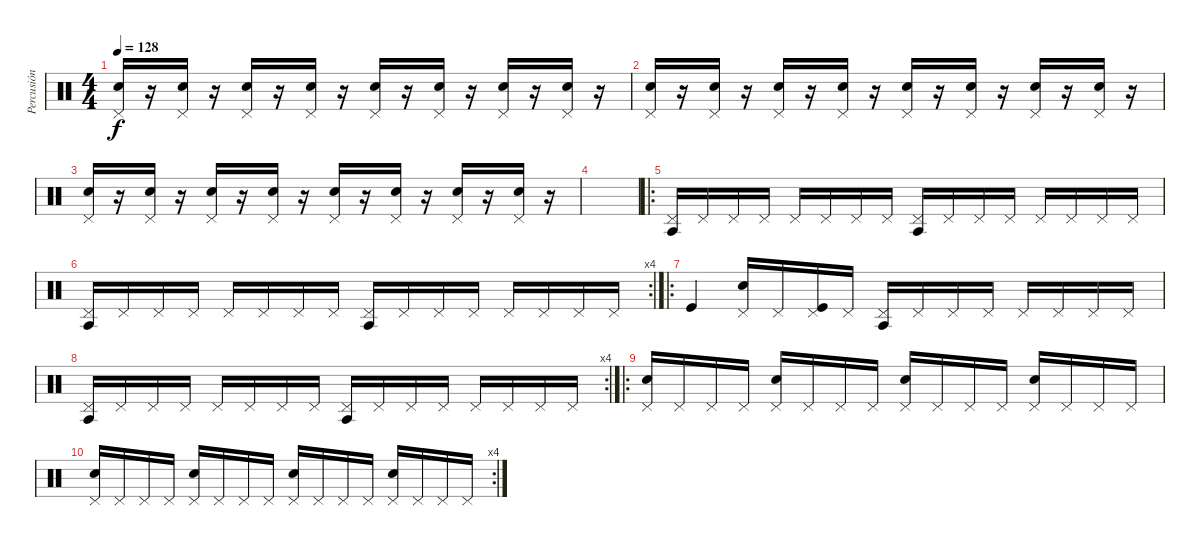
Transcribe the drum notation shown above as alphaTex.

\track ("Percusión" "Percusión") {instrument percussion}
\staff {score}
\articulation defaults
\ts (4 4)
\tempo 128
\clef neutral
\ks c
("Hand Clap (hit)" "Pedal Hi-Hat (hit)").16{dy f} r.16 ("Hand Clap (hit)" "Pedal Hi-Hat (hit)").16 r.16 ("Hand Clap (hit)" "Pedal Hi-Hat (hit)").16 r.16 ("Hand Clap (hit)" "Pedal Hi-Hat (hit)").16 r.16 ("Hand Clap (hit)" "Pedal Hi-Hat (hit)").16 r.16 ("Hand Clap (hit)" "Pedal Hi-Hat (hit)").16 r.16 ("Hand Clap (hit)" "Pedal Hi-Hat (hit)").16 r.16 ("Hand Clap (hit)" "Pedal Hi-Hat (hit)").16 r.16 |
("Hand Clap (hit)" "Pedal Hi-Hat (hit)").16 r.16 ("Hand Clap (hit)" "Pedal Hi-Hat (hit)").16 r.16 ("Hand Clap (hit)" "Pedal Hi-Hat (hit)").16 r.16 ("Hand Clap (hit)" "Pedal Hi-Hat (hit)").16 r.16 ("Hand Clap (hit)" "Pedal Hi-Hat (hit)").16 r.16 ("Hand Clap (hit)" "Pedal Hi-Hat (hit)").16 r.16 ("Hand Clap (hit)" "Pedal Hi-Hat (hit)").16 r.16 ("Hand Clap (hit)" "Pedal Hi-Hat (hit)").16 r.16 |
("Hand Clap (hit)" "Pedal Hi-Hat (hit)").16 r.16 ("Hand Clap (hit)" "Pedal Hi-Hat (hit)").16 r.16 ("Hand Clap (hit)" "Pedal Hi-Hat (hit)").16 r.16 ("Hand Clap (hit)" "Pedal Hi-Hat (hit)").16 r.16 ("Hand Clap (hit)" "Pedal Hi-Hat (hit)").16 r.16 ("Hand Clap (hit)" "Pedal Hi-Hat (hit)").16 r.16 ("Hand Clap (hit)" "Pedal Hi-Hat (hit)").16 r.16 ("Hand Clap (hit)" "Pedal Hi-Hat (hit)").16 r.16 |
|
\ro
("Agogo tow (hit)" "Pedal Hi-Hat (hit)").16 "Pedal Hi-Hat (hit)".16 "Pedal Hi-Hat (hit)".16 "Pedal Hi-Hat (hit)".16 "Pedal Hi-Hat (hit)".16 "Pedal Hi-Hat (hit)".16 "Pedal Hi-Hat (hit)".16 "Pedal Hi-Hat (hit)".16 ("Agogo tow (hit)" "Pedal Hi-Hat (hit)").16 "Pedal Hi-Hat (hit)".16 "Pedal Hi-Hat (hit)".16 "Pedal Hi-Hat (hit)".16 "Pedal Hi-Hat (hit)".16 "Pedal Hi-Hat (hit)".16 "Pedal Hi-Hat (hit)".16 "Pedal Hi-Hat (hit)".16 |
\rc 4
("Agogo tow (hit)" "Pedal Hi-Hat (hit)").16 "Pedal Hi-Hat (hit)".16 "Pedal Hi-Hat (hit)".16 "Pedal Hi-Hat (hit)".16 "Pedal Hi-Hat (hit)".16 "Pedal Hi-Hat (hit)".16 "Pedal Hi-Hat (hit)".16 "Pedal Hi-Hat (hit)".16 ("Agogo tow (hit)" "Pedal Hi-Hat (hit)").16 "Pedal Hi-Hat (hit)".16 "Pedal Hi-Hat (hit)".16 "Pedal Hi-Hat (hit)".16 "Pedal Hi-Hat (hit)".16 "Pedal Hi-Hat (hit)".16 "Pedal Hi-Hat (hit)".16 "Pedal Hi-Hat (hit)".16 |
\ro "Kick (hit)".4
("Snare (hit) 2" "Pedal Hi-Hat (hit)").16 "Pedal Hi-Hat (hit)".16 ("Kick (hit)" "Pedal Hi-Hat (hit)").16 "Pedal Hi-Hat (hit)".16 ("Agogo tow (hit)" "Pedal Hi-Hat (hit)").16 "Pedal Hi-Hat (hit)".16 "Pedal Hi-Hat (hit)".16 "Pedal Hi-Hat (hit)".16 "Pedal Hi-Hat (hit)".16 "Pedal Hi-Hat (hit)".16 "Pedal Hi-Hat (hit)".16 "Pedal Hi-Hat (hit)".16 |
\rc 4
("Agogo tow (hit)" "Pedal Hi-Hat (hit)").16 "Pedal Hi-Hat (hit)".16 "Pedal Hi-Hat (hit)".16 "Pedal Hi-Hat (hit)".16 "Pedal Hi-Hat (hit)".16 "Pedal Hi-Hat (hit)".16 "Pedal Hi-Hat (hit)".16 "Pedal Hi-Hat (hit)".16 ("Agogo tow (hit)" "Pedal Hi-Hat (hit)").16 "Pedal Hi-Hat (hit)".16 "Pedal Hi-Hat (hit)".16 "Pedal Hi-Hat (hit)".16 "Pedal Hi-Hat (hit)".16 "Pedal Hi-Hat (hit)".16 "Pedal Hi-Hat (hit)".16 "Pedal Hi-Hat (hit)".16 |
\ro
("Hand Clap (hit)" "Pedal Hi-Hat (hit)").16 "Pedal Hi-Hat (hit)".16 "Pedal Hi-Hat (hit)".16 "Pedal Hi-Hat (hit)".16 ("Hand Clap (hit)" "Pedal Hi-Hat (hit)").16 "Pedal Hi-Hat (hit)".16 "Pedal Hi-Hat (hit)".16 "Pedal Hi-Hat (hit)".16 ("Hand Clap (hit)" "Pedal Hi-Hat (hit)").16 "Pedal Hi-Hat (hit)".16 "Pedal Hi-Hat (hit)".16 "Pedal Hi-Hat (hit)".16 ("Hand Clap (hit)" "Pedal Hi-Hat (hit)").16 "Pedal Hi-Hat (hit)".16 "Pedal Hi-Hat (hit)".16 "Pedal Hi-Hat (hit)".16 |
\rc 4
("Hand Clap (hit)" "Pedal Hi-Hat (hit)").16 "Pedal Hi-Hat (hit)".16 "Pedal Hi-Hat (hit)".16 "Pedal Hi-Hat (hit)".16 ("Hand Clap (hit)" "Pedal Hi-Hat (hit)").16 "Pedal Hi-Hat (hit)".16 "Pedal Hi-Hat (hit)".16 "Pedal Hi-Hat (hit)".16 ("Hand Clap (hit)" "Pedal Hi-Hat (hit)").16 "Pedal Hi-Hat (hit)".16 "Pedal Hi-Hat (hit)".16 "Pedal Hi-Hat (hit)".16 ("Hand Clap (hit)" "Pedal Hi-Hat (hit)").16 "Pedal Hi-Hat (hit)".16 "Pedal Hi-Hat (hit)".16 "Pedal Hi-Hat (hit)".16
